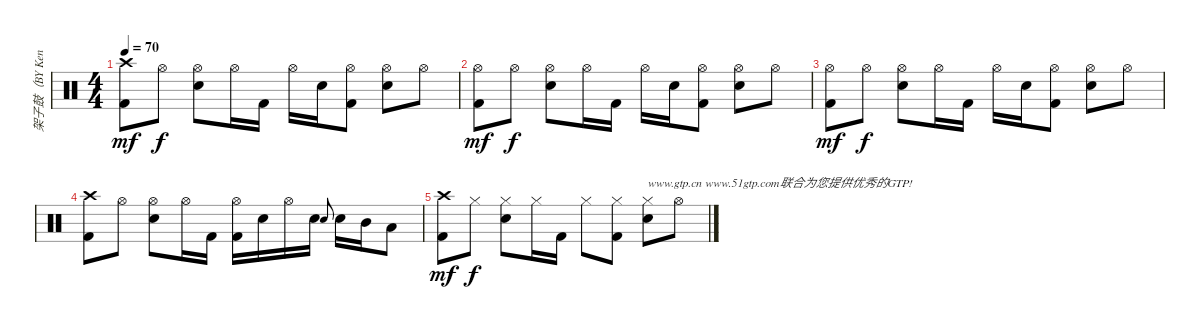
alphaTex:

\track ("架子鼓（BY Ken）" "架子鼓（BY Ken") {instrument percussion}
\staff {score}
\articulation defaults
\ts (4 4)
\tempo 70
\clef neutral
\ks c
("Crash high (hit)" "Kick (hit) 2").8{dy mf} "Hi-Hat (open)".8{dy f} ("Hi-Hat (open)" "Electric Snare (hit)").8 "Hi-Hat (open)".16 "Kick (hit) 2".16 "Hi-Hat (open)".16 "Electric Snare (hit)".16 ("Hi-Hat (open)" "Kick (hit) 2").8 ("Hi-Hat (open)" "Electric Snare (hit)").8 "Hi-Hat (open)".8 |
("Hi-Hat (open)" "Kick (hit) 2").8{dy mf} "Hi-Hat (open)".8{dy f} ("Hi-Hat (open)" "Electric Snare (hit)").8 "Hi-Hat (open)".16 "Kick (hit) 2".16 "Hi-Hat (open)".16 "Electric Snare (hit)".16 ("Hi-Hat (open)" "Kick (hit) 2").8 ("Hi-Hat (open)" "Electric Snare (hit)").8 "Hi-Hat (open)".8 |
("Hi-Hat (open)" "Kick (hit) 2").8{dy mf} "Hi-Hat (open)".8{dy f} ("Hi-Hat (open)" "Electric Snare (hit)").8 "Hi-Hat (open)".16 "Kick (hit) 2".16 "Hi-Hat (open)".16 "Electric Snare (hit)".16 ("Hi-Hat (open)" "Kick (hit) 2").8 ("Hi-Hat (open)" "Electric Snare (hit)").8 "Hi-Hat (open)".8 |
("Crash high (hit)" "Kick (hit) 2").8 "Hi-Hat (open)".8 ("Hi-Hat (open)" "Electric Snare (hit)").8 "Hi-Hat (open)".16 "Kick (hit) 2".16 ("Hi-Hat (open)" "Kick (hit) 2").16 "Electric Snare (hit)".16 "Hi-Hat (open)".16 "Electric Snare (hit)".16 "Electric Snare (hit)".8{gr onbeat} "Electric Snare (hit)".16 "Mid Tom (hit)".16 "Low Floor Tom (hit)".8 |
("Crash high (hit)" "Kick (hit) 2").8{dy mf} "Hi-Hat (closed)".8{dy f} ("Hi-Hat (closed)" "Electric Snare (hit)").8 "Hi-Hat (closed)".16 "Kick (hit) 2".16 "Hi-Hat (closed)".8 ("Hi-Hat (closed)" "Kick (hit) 2").8 ("Hi-Hat (closed)" "Electric Snare (hit)").8{txt "www.gtp.cn www.51gtp.com联合为您提供优秀的GTP!"} "Hi-Hat (open)".8
